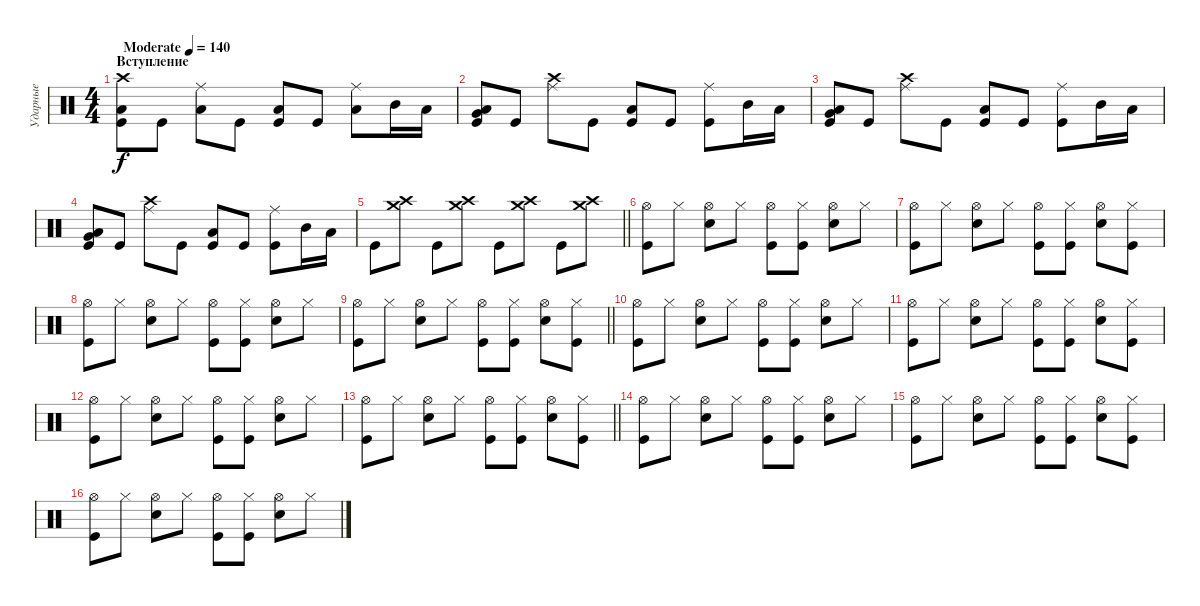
\track ("Ударные" "Ударные") {instrument percussion}
\staff {score}
\articulation defaults
\ts (4 4)
\section ("" "Вступление")
\tempo (140 "Moderate")
\clef neutral
\ks c
("Crash high (hit)" "Low Floor Tom (hit)" "Kick (hit)").8{dy f} "Kick (hit)".8 ("Ride (middle)" "Low Floor Tom (hit)").8 "Kick (hit)".8 ("Low Floor Tom (hit)" "Kick (hit)").8 "Kick (hit)".8 ("Ride (middle)" "Low Floor Tom (hit)").8 "Mid Tom (hit)".16 "Low Tom (hit)".16 |
("Very Low Tom (hit)" "Low Floor Tom (hit)" "Kick (hit)").8 "Kick (hit)".8 ("Crash high (hit)" "Ride (middle)").8 "Kick (hit)".8 ("Low Floor Tom (hit)" "Kick (hit)").8 "Kick (hit)".8 ("Ride (middle)" "Kick (hit)").8 "Mid Tom (hit)".16 "Low Tom (hit)".16 |
("Very Low Tom (hit)" "Low Floor Tom (hit)" "Kick (hit)").8 "Kick (hit)".8 ("Crash high (hit)" "Ride (middle)").8 "Kick (hit)".8 ("Low Floor Tom (hit)" "Kick (hit)").8 "Kick (hit)".8 ("Ride (middle)" "Kick (hit)").8 "Mid Tom (hit)".16 "Low Tom (hit)".16 |
("Very Low Tom (hit)" "Low Floor Tom (hit)" "Kick (hit)").8 "Kick (hit)".8 ("Crash high (hit)" "Ride (middle)").8 "Kick (hit)".8 ("Low Floor Tom (hit)" "Kick (hit)").8 "Kick (hit)".8 ("Ride (middle)" "Kick (hit)").8 "Mid Tom (hit)".16 "Low Tom (hit)".16 |
\barLineRight lightlight "Kick (hit)".8
("Crash high (hit)" "Crash medium (hit)").8 "Kick (hit)".8 ("Crash high (hit)" "Crash medium (hit)").8 "Kick (hit)".8 ("Crash high (hit)" "Crash medium (hit)").8 "Kick (hit)".8 ("Crash high (hit)" "Crash medium (hit)").8 |
("Hi-Hat (open)" "Kick (hit)").8 "Hi-Hat (closed)".8 ("Hi-Hat (open)" "Snare (hit) 2").8 "Hi-Hat (closed)".8 ("Hi-Hat (open)" "Kick (hit)").8 ("Hi-Hat (closed)" "Kick (hit)").8 ("Hi-Hat (open)" "Snare (hit) 2").8 "Hi-Hat (closed)".8 |
("Hi-Hat (open)" "Kick (hit)").8 "Hi-Hat (closed)".8 ("Hi-Hat (open)" "Snare (hit) 2").8 "Hi-Hat (closed)".8 ("Hi-Hat (open)" "Kick (hit)").8 ("Hi-Hat (closed)" "Kick (hit)").8 ("Hi-Hat (open)" "Snare (hit) 2").8 ("Hi-Hat (closed)" "Kick (hit)").8 |
("Hi-Hat (open)" "Kick (hit)").8 "Hi-Hat (closed)".8 ("Hi-Hat (open)" "Snare (hit) 2").8 "Hi-Hat (closed)".8 ("Hi-Hat (open)" "Kick (hit)").8 ("Hi-Hat (closed)" "Kick (hit)").8 ("Hi-Hat (open)" "Snare (hit) 2").8 "Hi-Hat (closed)".8 |
\barLineRight lightlight
("Hi-Hat (open)" "Kick (hit)").8 "Hi-Hat (closed)".8 ("Hi-Hat (open)" "Snare (hit) 2").8 "Hi-Hat (closed)".8 ("Hi-Hat (open)" "Kick (hit)").8 ("Hi-Hat (closed)" "Kick (hit)").8 ("Hi-Hat (open)" "Snare (hit) 2").8 ("Hi-Hat (closed)" "Kick (hit)").8 |
("Hi-Hat (open)" "Kick (hit)").8 "Hi-Hat (closed)".8 ("Hi-Hat (open)" "Snare (hit) 2").8 "Hi-Hat (closed)".8 ("Hi-Hat (open)" "Kick (hit)").8 ("Hi-Hat (closed)" "Kick (hit)").8 ("Hi-Hat (open)" "Snare (hit) 2").8 "Hi-Hat (closed)".8 |
("Hi-Hat (open)" "Kick (hit)").8 "Hi-Hat (closed)".8 ("Hi-Hat (open)" "Snare (hit) 2").8 "Hi-Hat (closed)".8 ("Hi-Hat (open)" "Kick (hit)").8 ("Hi-Hat (closed)" "Kick (hit)").8 ("Hi-Hat (open)" "Snare (hit) 2").8 ("Hi-Hat (closed)" "Kick (hit)").8 |
("Hi-Hat (open)" "Kick (hit)").8 "Hi-Hat (closed)".8 ("Hi-Hat (open)" "Snare (hit) 2").8 "Hi-Hat (closed)".8 ("Hi-Hat (open)" "Kick (hit)").8 ("Hi-Hat (closed)" "Kick (hit)").8 ("Hi-Hat (open)" "Snare (hit) 2").8 "Hi-Hat (closed)".8 |
\barLineRight lightlight
("Hi-Hat (open)" "Kick (hit)").8 "Hi-Hat (closed)".8 ("Hi-Hat (open)" "Snare (hit) 2").8 "Hi-Hat (closed)".8 ("Hi-Hat (open)" "Kick (hit)").8 ("Hi-Hat (closed)" "Kick (hit)").8 ("Hi-Hat (open)" "Snare (hit) 2").8 ("Hi-Hat (closed)" "Kick (hit)").8 |
("Hi-Hat (open)" "Kick (hit)").8 "Hi-Hat (closed)".8 ("Hi-Hat (open)" "Snare (hit) 2").8 "Hi-Hat (closed)".8 ("Hi-Hat (open)" "Kick (hit)").8 ("Hi-Hat (closed)" "Kick (hit)").8 ("Hi-Hat (open)" "Snare (hit) 2").8 "Hi-Hat (closed)".8 |
("Hi-Hat (open)" "Kick (hit)").8 "Hi-Hat (closed)".8 ("Hi-Hat (open)" "Snare (hit) 2").8 "Hi-Hat (closed)".8 ("Hi-Hat (open)" "Kick (hit)").8 ("Hi-Hat (closed)" "Kick (hit)").8 ("Hi-Hat (open)" "Snare (hit) 2").8 ("Hi-Hat (closed)" "Kick (hit)").8 |
("Hi-Hat (open)" "Kick (hit)").8 "Hi-Hat (closed)".8 ("Hi-Hat (open)" "Snare (hit) 2").8 "Hi-Hat (closed)".8 ("Hi-Hat (open)" "Kick (hit)").8 ("Hi-Hat (closed)" "Kick (hit)").8 ("Hi-Hat (open)" "Snare (hit) 2").8 "Hi-Hat (closed)".8
